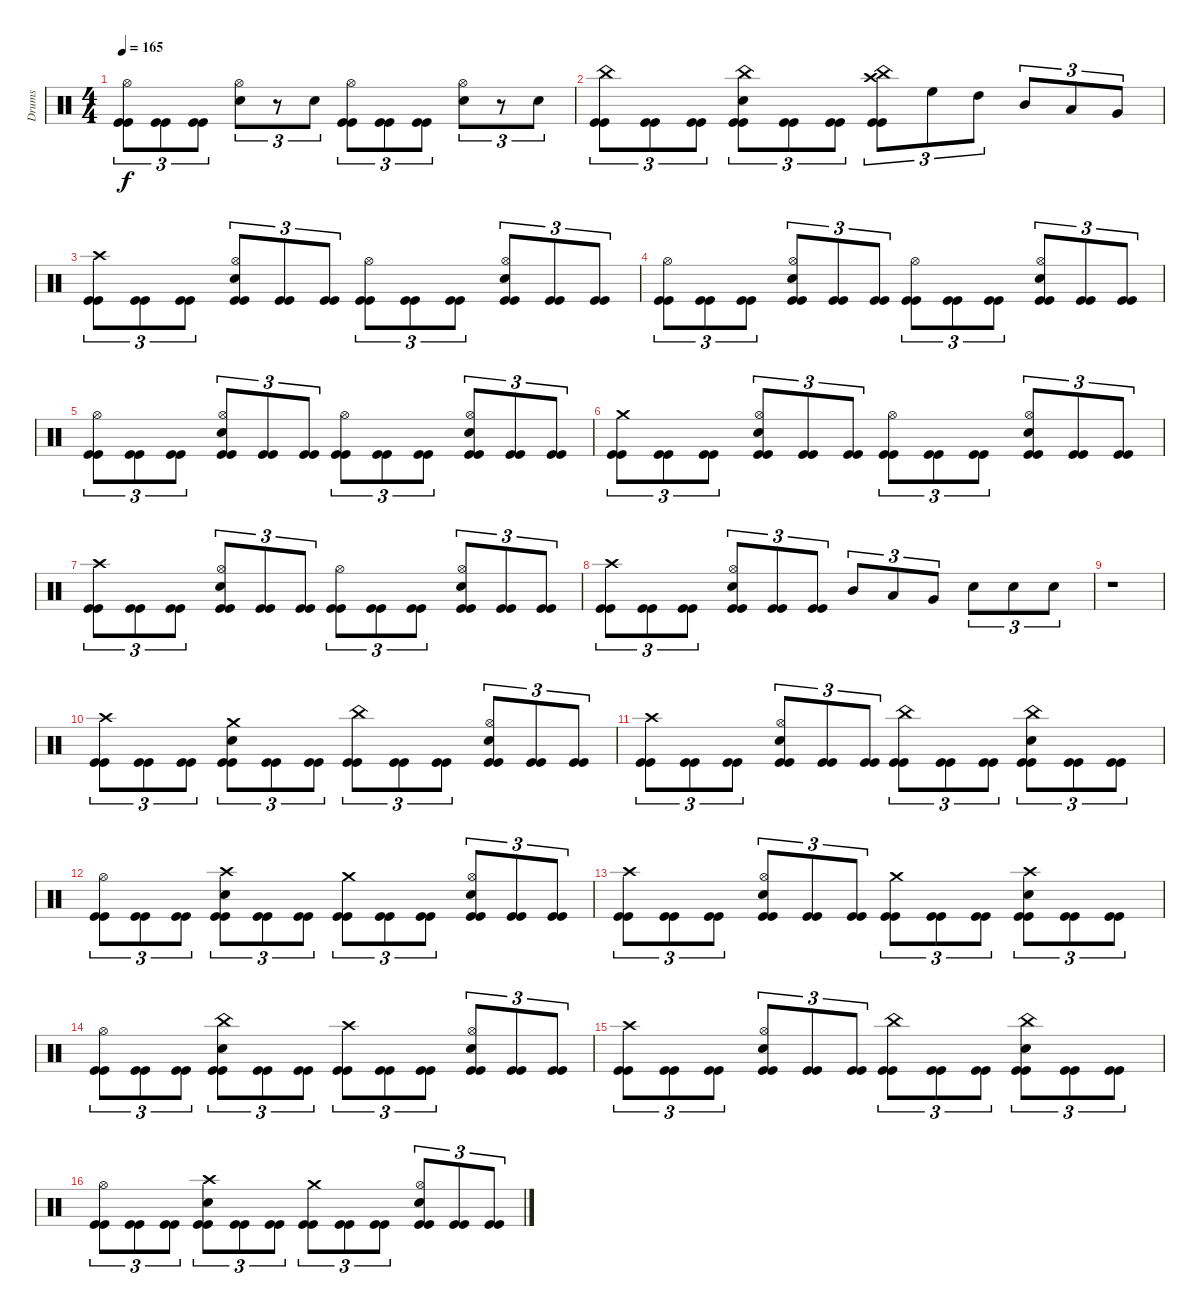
\track ("Drums" "Drums") {instrument percussion}
\staff {score}
\articulation defaults
\ts (4 4)
\tempo 165
\clef neutral
\ks c
("Kick (hit)" "Kick (hit)" "Hi-Hat (open)").8{tu (3 2) dy f} ("Kick (hit)" "Kick (hit)").8{tu (3 2)} ("Kick (hit)" "Kick (hit)").8{tu (3 2)} ("Snare (hit) 2" "Hi-Hat (open)").8{tu (3 2)} r.8{tu (3 2)} "Snare (hit) 2".8{tu (3 2)} ("Kick (hit)" "Kick (hit)" "Hi-Hat (open)").8{tu (3 2)} ("Kick (hit)" "Kick (hit)").8{tu (3 2)} ("Kick (hit)" "Kick (hit)").8{tu (3 2)} ("Snare (hit) 2" "Hi-Hat (open)").8{tu (3 2)} r.8{tu (3 2)} "Snare (hit) 2".8{tu (3 2)} |
("Kick (hit)" "Kick (hit)" "China (hit)").8{tu (3 2)} ("Kick (hit)" "Kick (hit)").8{tu (3 2)} ("Kick (hit)" "Kick (hit)").8{tu (3 2)} ("Kick (hit)" "Kick (hit)" "Snare (hit) 2" "China (hit)").8{tu (3 2)} ("Kick (hit)" "Kick (hit)").8{tu (3 2)} ("Kick (hit)" "Kick (hit)").8{tu (3 2)} ("Kick (hit)" "Kick (hit)" "China (hit)" "Crash high (hit)").8{tu (3 2)} "High Floor Tom (hit)".8{tu (3 2)} "High Tom (hit)".8{tu (3 2)} "Mid Tom (hit)".8{tu (3 2)} "Low Tom (hit)".8{tu (3 2)} "Very Low Tom (hit)".8{tu (3 2)} |
("Kick (hit)" "Kick (hit)" "Crash high (hit)").8{tu (3 2)} ("Kick (hit)" "Kick (hit)").8{tu (3 2)} ("Kick (hit)" "Kick (hit)").8{tu (3 2)} ("Kick (hit)" "Kick (hit)" "Snare (hit) 2" "Hi-Hat (open)").8{tu (3 2)} ("Kick (hit)" "Kick (hit)").8{tu (3 2)} ("Kick (hit)" "Kick (hit)").8{tu (3 2)} ("Kick (hit)" "Kick (hit)" "Hi-Hat (open)").8{tu (3 2)} ("Kick (hit)" "Kick (hit)").8{tu (3 2)} ("Kick (hit)" "Kick (hit)").8{tu (3 2)} ("Kick (hit)" "Kick (hit)" "Snare (hit) 2" "Hi-Hat (open)").8{tu (3 2)} ("Kick (hit)" "Kick (hit)").8{tu (3 2)} ("Kick (hit)" "Kick (hit)").8{tu (3 2)} |
("Kick (hit)" "Kick (hit)" "Hi-Hat (open)").8{tu (3 2)} ("Kick (hit)" "Kick (hit)").8{tu (3 2)} ("Kick (hit)" "Kick (hit)").8{tu (3 2)} ("Kick (hit)" "Kick (hit)" "Snare (hit) 2" "Hi-Hat (open)").8{tu (3 2)} ("Kick (hit)" "Kick (hit)").8{tu (3 2)} ("Kick (hit)" "Kick (hit)").8{tu (3 2)} ("Kick (hit)" "Kick (hit)" "Hi-Hat (open)").8{tu (3 2)} ("Kick (hit)" "Kick (hit)").8{tu (3 2)} ("Kick (hit)" "Kick (hit)").8{tu (3 2)} ("Kick (hit)" "Kick (hit)" "Snare (hit) 2" "Hi-Hat (open)").8{tu (3 2)} ("Kick (hit)" "Kick (hit)").8{tu (3 2)} ("Kick (hit)" "Kick (hit)").8{tu (3 2)} |
("Kick (hit)" "Kick (hit)" "Hi-Hat (open)").8{tu (3 2)} ("Kick (hit)" "Kick (hit)").8{tu (3 2)} ("Kick (hit)" "Kick (hit)").8{tu (3 2)} ("Kick (hit)" "Kick (hit)" "Snare (hit) 2" "Hi-Hat (open)").8{tu (3 2)} ("Kick (hit)" "Kick (hit)").8{tu (3 2)} ("Kick (hit)" "Kick (hit)").8{tu (3 2)} ("Kick (hit)" "Kick (hit)" "Hi-Hat (open)").8{tu (3 2)} ("Kick (hit)" "Kick (hit)").8{tu (3 2)} ("Kick (hit)" "Kick (hit)").8{tu (3 2)} ("Kick (hit)" "Kick (hit)" "Snare (hit) 2" "Hi-Hat (open)").8{tu (3 2)} ("Kick (hit)" "Kick (hit)").8{tu (3 2)} ("Kick (hit)" "Kick (hit)").8{tu (3 2)} |
("Kick (hit)" "Kick (hit)" "Crash medium (hit)").8{tu (3 2)} ("Kick (hit)" "Kick (hit)").8{tu (3 2)} ("Kick (hit)" "Kick (hit)").8{tu (3 2)} ("Kick (hit)" "Kick (hit)" "Snare (hit) 2" "Hi-Hat (open)").8{tu (3 2)} ("Kick (hit)" "Kick (hit)").8{tu (3 2)} ("Kick (hit)" "Kick (hit)").8{tu (3 2)} ("Kick (hit)" "Kick (hit)" "Hi-Hat (open)").8{tu (3 2)} ("Kick (hit)" "Kick (hit)").8{tu (3 2)} ("Kick (hit)" "Kick (hit)").8{tu (3 2)} ("Kick (hit)" "Kick (hit)" "Snare (hit) 2" "Hi-Hat (open)").8{tu (3 2)} ("Kick (hit)" "Kick (hit)").8{tu (3 2)} ("Kick (hit)" "Kick (hit)").8{tu (3 2)} |
("Kick (hit)" "Kick (hit)" "Crash high (hit)").8{tu (3 2)} ("Kick (hit)" "Kick (hit)").8{tu (3 2)} ("Kick (hit)" "Kick (hit)").8{tu (3 2)} ("Kick (hit)" "Kick (hit)" "Snare (hit) 2" "Hi-Hat (open)").8{tu (3 2)} ("Kick (hit)" "Kick (hit)").8{tu (3 2)} ("Kick (hit)" "Kick (hit)").8{tu (3 2)} ("Kick (hit)" "Kick (hit)" "Hi-Hat (open)").8{tu (3 2)} ("Kick (hit)" "Kick (hit)").8{tu (3 2)} ("Kick (hit)" "Kick (hit)").8{tu (3 2)} ("Kick (hit)" "Kick (hit)" "Snare (hit) 2" "Hi-Hat (open)").8{tu (3 2)} ("Kick (hit)" "Kick (hit)").8{tu (3 2)} ("Kick (hit)" "Kick (hit)").8{tu (3 2)} |
("Kick (hit)" "Kick (hit)" "Crash high (hit)").8{tu (3 2)} ("Kick (hit)" "Kick (hit)").8{tu (3 2)} ("Kick (hit)" "Kick (hit)").8{tu (3 2)} ("Kick (hit)" "Kick (hit)" "Snare (hit) 2" "Hi-Hat (open)").8{tu (3 2)} ("Kick (hit)" "Kick (hit)").8{tu (3 2)} ("Kick (hit)" "Kick (hit)").8{tu (3 2)} "Mid Tom (hit)".8{tu (3 2)} "Low Tom (hit)".8{tu (3 2)} "Very Low Tom (hit)".8{tu (3 2)} "Snare (hit) 2".8{tu (3 2)} "Snare (hit) 2".8{tu (3 2)} "Snare (hit) 2".8{tu (3 2)} |
r.1 |
("Kick (hit)" "Kick (hit)" "Crash high (hit)").8{tu (3 2)} ("Kick (hit)" "Kick (hit)").8{tu (3 2)} ("Kick (hit)" "Kick (hit)").8{tu (3 2)} ("Kick (hit)" "Kick (hit)" "Snare (hit) 2" "Crash medium (hit)").8{tu (3 2)} ("Kick (hit)" "Kick (hit)").8{tu (3 2)} ("Kick (hit)" "Kick (hit)").8{tu (3 2)} ("Kick (hit)" "Kick (hit)" "China (hit)").8{tu (3 2)} ("Kick (hit)" "Kick (hit)").8{tu (3 2)} ("Kick (hit)" "Kick (hit)").8{tu (3 2)} ("Kick (hit)" "Kick (hit)" "Snare (hit) 2" "Hi-Hat (open)").8{tu (3 2)} ("Kick (hit)" "Kick (hit)").8{tu (3 2)} ("Kick (hit)" "Kick (hit)").8{tu (3 2)} |
("Kick (hit)" "Kick (hit)" "Crash high (hit)").8{tu (3 2)} ("Kick (hit)" "Kick (hit)").8{tu (3 2)} ("Kick (hit)" "Kick (hit)").8{tu (3 2)} ("Kick (hit)" "Kick (hit)" "Snare (hit) 2" "Hi-Hat (open)").8{tu (3 2)} ("Kick (hit)" "Kick (hit)").8{tu (3 2)} ("Kick (hit)" "Kick (hit)").8{tu (3 2)} ("Kick (hit)" "Kick (hit)" "China (hit)").8{tu (3 2)} ("Kick (hit)" "Kick (hit)").8{tu (3 2)} ("Kick (hit)" "Kick (hit)").8{tu (3 2)} ("Kick (hit)" "Kick (hit)" "Snare (hit) 2" "China (hit)").8{tu (3 2)} ("Kick (hit)" "Kick (hit)").8{tu (3 2)} ("Kick (hit)" "Kick (hit)").8{tu (3 2)} |
("Kick (hit)" "Kick (hit)" "Hi-Hat (open)").8{tu (3 2)} ("Kick (hit)" "Kick (hit)").8{tu (3 2)} ("Kick (hit)" "Kick (hit)").8{tu (3 2)} ("Kick (hit)" "Kick (hit)" "Snare (hit) 2" "Crash high (hit)").8{tu (3 2)} ("Kick (hit)" "Kick (hit)").8{tu (3 2)} ("Kick (hit)" "Kick (hit)").8{tu (3 2)} ("Kick (hit)" "Kick (hit)" "Crash medium (hit)").8{tu (3 2)} ("Kick (hit)" "Kick (hit)").8{tu (3 2)} ("Kick (hit)" "Kick (hit)").8{tu (3 2)} ("Kick (hit)" "Kick (hit)" "Snare (hit) 2" "Hi-Hat (open)").8{tu (3 2)} ("Kick (hit)" "Kick (hit)").8{tu (3 2)} ("Kick (hit)" "Kick (hit)").8{tu (3 2)} |
("Kick (hit)" "Kick (hit)" "Crash high (hit)").8{tu (3 2)} ("Kick (hit)" "Kick (hit)").8{tu (3 2)} ("Kick (hit)" "Kick (hit)").8{tu (3 2)} ("Kick (hit)" "Kick (hit)" "Snare (hit) 2" "Hi-Hat (open)").8{tu (3 2)} ("Kick (hit)" "Kick (hit)").8{tu (3 2)} ("Kick (hit)" "Kick (hit)").8{tu (3 2)} ("Kick (hit)" "Kick (hit)" "Crash medium (hit)").8{tu (3 2)} ("Kick (hit)" "Kick (hit)").8{tu (3 2)} ("Kick (hit)" "Kick (hit)").8{tu (3 2)} ("Kick (hit)" "Kick (hit)" "Snare (hit) 2" "Crash high (hit)").8{tu (3 2)} ("Kick (hit)" "Kick (hit)").8{tu (3 2)} ("Kick (hit)" "Kick (hit)").8{tu (3 2)} |
("Kick (hit)" "Kick (hit)" "Hi-Hat (open)").8{tu (3 2)} ("Kick (hit)" "Kick (hit)").8{tu (3 2)} ("Kick (hit)" "Kick (hit)").8{tu (3 2)} ("Kick (hit)" "Kick (hit)" "Snare (hit) 2" "China (hit)").8{tu (3 2)} ("Kick (hit)" "Kick (hit)").8{tu (3 2)} ("Kick (hit)" "Kick (hit)").8{tu (3 2)} ("Kick (hit)" "Kick (hit)" "Crash high (hit)").8{tu (3 2)} ("Kick (hit)" "Kick (hit)").8{tu (3 2)} ("Kick (hit)" "Kick (hit)").8{tu (3 2)} ("Kick (hit)" "Kick (hit)" "Snare (hit) 2" "Hi-Hat (open)").8{tu (3 2)} ("Kick (hit)" "Kick (hit)").8{tu (3 2)} ("Kick (hit)" "Kick (hit)").8{tu (3 2)} |
("Kick (hit)" "Kick (hit)" "Crash high (hit)").8{tu (3 2)} ("Kick (hit)" "Kick (hit)").8{tu (3 2)} ("Kick (hit)" "Kick (hit)").8{tu (3 2)} ("Kick (hit)" "Kick (hit)" "Snare (hit) 2" "Hi-Hat (open)").8{tu (3 2)} ("Kick (hit)" "Kick (hit)").8{tu (3 2)} ("Kick (hit)" "Kick (hit)").8{tu (3 2)} ("Kick (hit)" "Kick (hit)" "China (hit)").8{tu (3 2)} ("Kick (hit)" "Kick (hit)").8{tu (3 2)} ("Kick (hit)" "Kick (hit)").8{tu (3 2)} ("Kick (hit)" "Kick (hit)" "Snare (hit) 2" "China (hit)").8{tu (3 2)} ("Kick (hit)" "Kick (hit)").8{tu (3 2)} ("Kick (hit)" "Kick (hit)").8{tu (3 2)} |
("Kick (hit)" "Kick (hit)" "Hi-Hat (open)").8{tu (3 2)} ("Kick (hit)" "Kick (hit)").8{tu (3 2)} ("Kick (hit)" "Kick (hit)").8{tu (3 2)} ("Kick (hit)" "Kick (hit)" "Snare (hit) 2" "Crash high (hit)").8{tu (3 2)} ("Kick (hit)" "Kick (hit)").8{tu (3 2)} ("Kick (hit)" "Kick (hit)").8{tu (3 2)} ("Kick (hit)" "Kick (hit)" "Crash medium (hit)").8{tu (3 2)} ("Kick (hit)" "Kick (hit)").8{tu (3 2)} ("Kick (hit)" "Kick (hit)").8{tu (3 2)} ("Kick (hit)" "Kick (hit)" "Snare (hit) 2" "Hi-Hat (open)").8{tu (3 2)} ("Kick (hit)" "Kick (hit)").8{tu (3 2)} ("Kick (hit)" "Kick (hit)").8{tu (3 2)}
